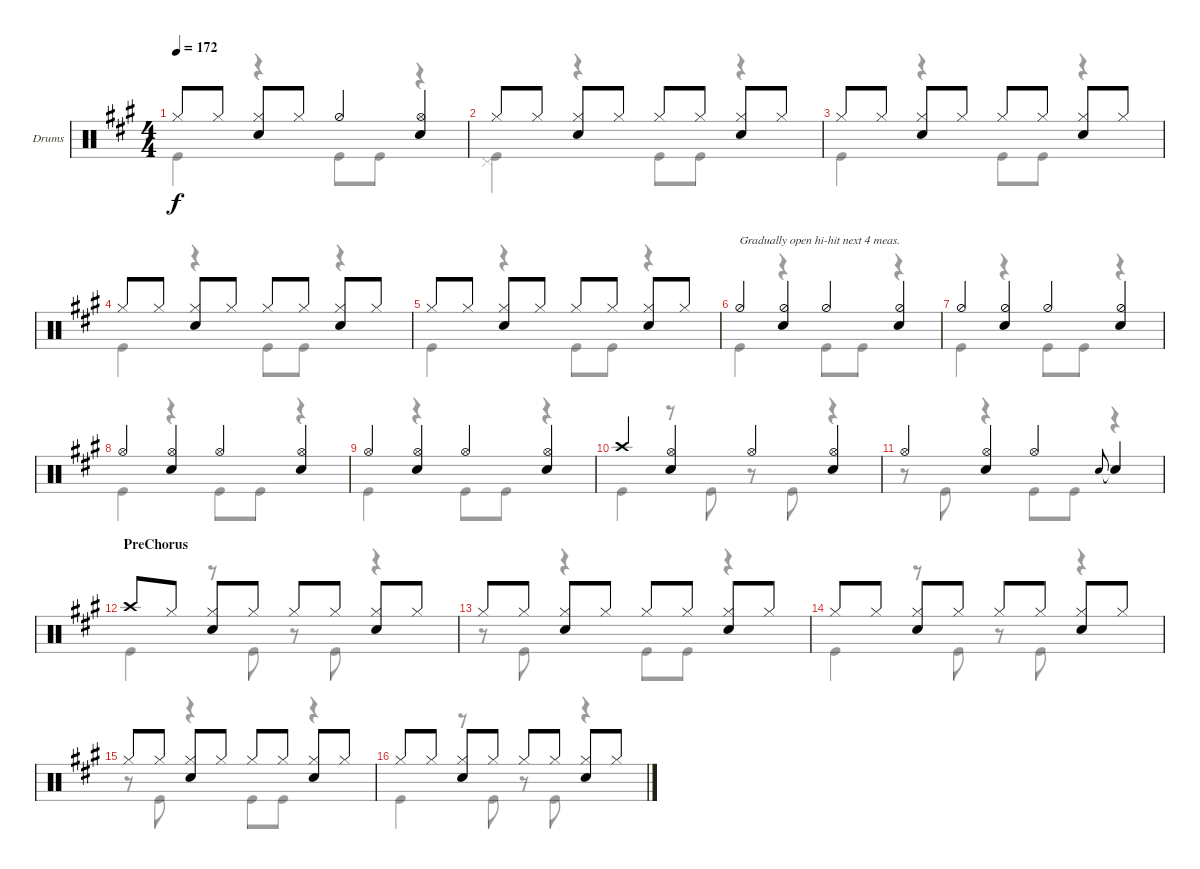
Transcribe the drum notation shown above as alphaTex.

\defaultSystemsLayout 4
\bracketExtendMode groupsimilarinstruments
\firstSystemTrackNameOrientation horizontal
\otherSystemsTrackNameOrientation horizontal
\track ("Taylor Hawkins" "Drums") {instrument percussion}
\staff {score}
\articulation defaults
\voice
\ts (4 4)
\tempo 172
\clef neutral
\ks a "Hi-Hat (closed)".8{dy f} "Hi-Hat (closed)".8
("Hi-Hat (closed)" "Snare (hit) 2").8 "Hi-Hat (closed)".8 "Hi-Hat (half)".4 ("Snare (hit) 2" "Hi-Hat (open)").4 |
"Hi-Hat (closed)".8 "Hi-Hat (closed)".8 ("Hi-Hat (closed)" "Snare (hit) 2").8 "Hi-Hat (closed)".8 "Hi-Hat (closed)".8 "Hi-Hat (closed)".8 ("Hi-Hat (closed)" "Snare (hit) 2").8 "Hi-Hat (closed)".8 |
"Hi-Hat (closed)".8 "Hi-Hat (closed)".8 ("Hi-Hat (closed)" "Snare (hit) 2").8 "Hi-Hat (closed)".8 "Hi-Hat (closed)".8 "Hi-Hat (closed)".8 ("Hi-Hat (closed)" "Snare (hit) 2").8 "Hi-Hat (closed)".8 |
"Hi-Hat (closed)".8 "Hi-Hat (closed)".8 ("Hi-Hat (closed)" "Snare (hit) 2").8 "Hi-Hat (closed)".8 "Hi-Hat (closed)".8 "Hi-Hat (closed)".8 ("Hi-Hat (closed)" "Snare (hit) 2").8 "Hi-Hat (closed)".8 |
"Hi-Hat (closed)".8 "Hi-Hat (closed)".8 ("Hi-Hat (closed)" "Snare (hit) 2").8 "Hi-Hat (closed)".8 "Hi-Hat (closed)".8 "Hi-Hat (closed)".8 ("Hi-Hat (closed)" "Snare (hit) 2").8 "Hi-Hat (closed)".8 |
"Hi-Hat (half)".4{txt "Gradually open hi-hit next 4 meas."} ("Hi-Hat (half)" "Snare (hit) 2").4 "Hi-Hat (half)".4 ("Hi-Hat (half)" "Snare (hit) 2").4 |
"Hi-Hat (half)".4 ("Hi-Hat (half)" "Snare (hit) 2").4 "Hi-Hat (half)".4 ("Hi-Hat (half)" "Snare (hit) 2").4 |
"Hi-Hat (open)".4 ("Hi-Hat (open)" "Snare (hit) 2").4 "Hi-Hat (open)".4 ("Hi-Hat (open)" "Snare (hit) 2").4 |
"Hi-Hat (open)".4 ("Hi-Hat (open)" "Snare (hit) 2").4 "Hi-Hat (open)".4 ("Hi-Hat (open)" "Snare (hit) 2").4 |
\scale
0.333333 "Crash high (hit)".4 ("Hi-Hat (open)" "Snare (hit) 2").4 "Hi-Hat (open)".4 ("Hi-Hat (open)" "Snare (hit) 2").4 |
\scale
0.333333 "Hi-Hat (open)".4 ("Hi-Hat (open)" "Snare (hit) 2").4 "Hi-Hat (open)".4 "Snare (hit) 2".8{gr onbeat} "Snare (hit) 2"{t}.4 |
\section ("" "PreChorus")
\scale
0.333333 "Crash high (hit)".8 "Hi-Hat (closed)".8 ("Hi-Hat (closed)" "Snare (hit) 2").8 "Hi-Hat (closed)".8 "Hi-Hat (closed)".8 "Hi-Hat (closed)".8 ("Hi-Hat (closed)" "Snare (hit) 2").8 "Hi-Hat (closed)".8 |
\scale
0.333333 "Hi-Hat (closed)".8 "Hi-Hat (closed)".8 ("Hi-Hat (closed)" "Snare (hit) 2").8 "Hi-Hat (closed)".8 "Hi-Hat (closed)".8 "Hi-Hat (closed)".8 ("Hi-Hat (closed)" "Snare (hit) 2").8 "Hi-Hat (closed)".8 |
\scale
0.333333 "Hi-Hat (closed)".8 "Hi-Hat (closed)".8 ("Hi-Hat (closed)" "Snare (hit) 2").8 "Hi-Hat (closed)".8 "Hi-Hat (closed)".8 "Hi-Hat (closed)".8 ("Hi-Hat (closed)" "Snare (hit) 2").8 "Hi-Hat (closed)".8 |
\scale
0.333333 "Hi-Hat (closed)".8 "Hi-Hat (closed)".8 ("Hi-Hat (closed)" "Snare (hit) 2").8 "Hi-Hat (closed)".8 "Hi-Hat (closed)".8 "Hi-Hat (closed)".8 ("Hi-Hat (closed)" "Snare (hit) 2").8 "Hi-Hat (closed)".8 |
\scale
0.333333 "Hi-Hat (closed)".8 "Hi-Hat (closed)".8 ("Hi-Hat (closed)" "Snare (hit) 2").8 "Hi-Hat (closed)".8 "Hi-Hat (closed)".8 "Hi-Hat (closed)".8 ("Hi-Hat (closed)" "Snare (hit) 2").8 "Hi-Hat (closed)".8
\voice
\clef neutral
\ottava regular
\simile none
\ks a "Kick (hit)".4{dy f}
r.4 "Kick (hit)".8 "Kick (hit)".8 r.4 |
("Kick (hit)" "Pedal Hi-Hat (hit)").4 r.4 "Kick (hit)".8 "Kick (hit)".8 r.4 |
"Kick (hit)".4 r.4 "Kick (hit)".8 "Kick (hit)".8 r.4 |
"Kick (hit)".4 r.4 "Kick (hit)".8 "Kick (hit)".8 r.4 |
"Kick (hit)".4 r.4 "Kick (hit)".8 "Kick (hit)".8 r.4 |
"Kick (hit)".4 r.4 "Kick (hit)".8 "Kick (hit)".8 r.4 |
"Kick (hit)".4 r.4 "Kick (hit)".8 "Kick (hit)".8 r.4 |
"Kick (hit)".4 r.4 "Kick (hit)".8 "Kick (hit)".8 r.4 |
"Kick (hit)".4 r.4 "Kick (hit)".8 "Kick (hit)".8 r.4 |
\scale
0.333333 "Kick (hit)".4 r.8 "Kick (hit)".8 r.8 "Kick (hit)".8 r.4 |
\scale
0.333333 r.8 "Kick (hit)".8 r.4 "Kick (hit)".8 "Kick (hit)".8 r.4 |
\scale
0.333333 "Kick (hit)".4 r.8 "Kick (hit)".8 r.8 "Kick (hit)".8 r.4 |
\scale
0.333333 r.8 "Kick (hit)".8 r.4 "Kick (hit)".8 "Kick (hit)".8 r.4 |
\scale
0.333333 "Kick (hit)".4 r.8 "Kick (hit)".8 r.8 "Kick (hit)".8 r.4 |
\scale
0.333333 r.8 "Kick (hit)".8 r.4 "Kick (hit)".8 "Kick (hit)".8 r.4 |
\scale
0.333333 "Kick (hit)".4 r.8 "Kick (hit)".8 r.8 "Kick (hit)".8 r.4
